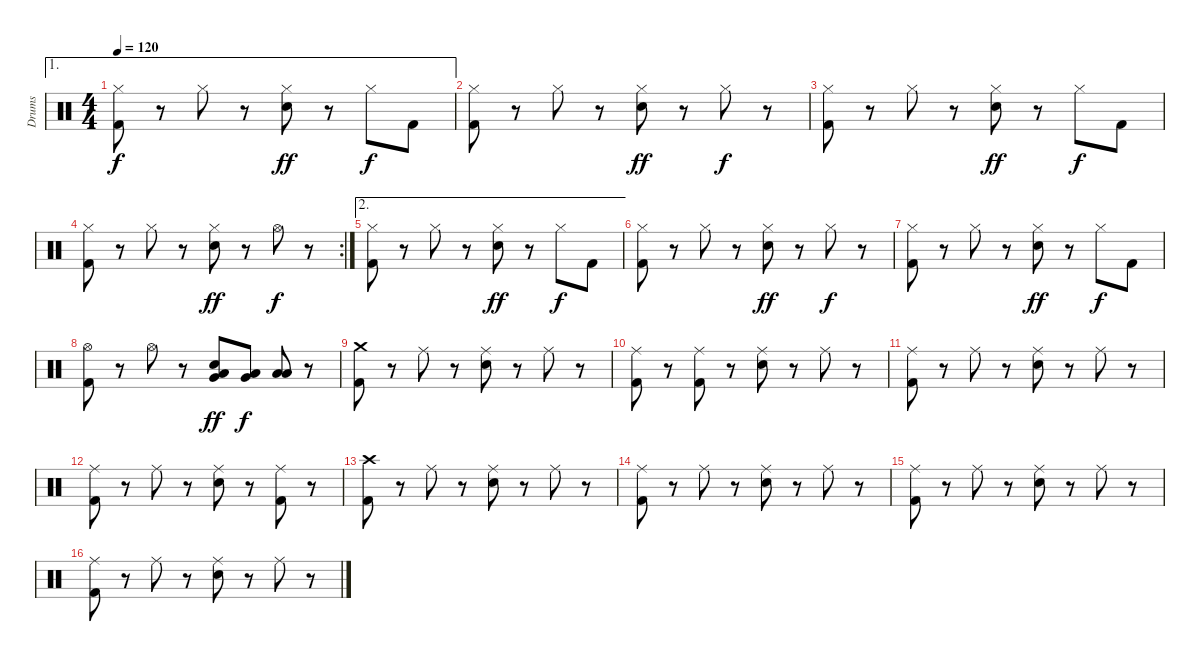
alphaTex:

\track ("Drums" "Drums") {instrument percussion}
\staff {score}
\articulation defaults
\ae 1
\ts (4 4)
\tempo 120
\clef neutral
\ks c
("Hi-Hat (closed)" "Kick (hit) 2").8{dy f} r.8 "Hi-Hat (closed)".8 r.8 ("Hi-Hat (closed)" "Electric Snare (hit)").8{dy ff} r.8 "Hi-Hat (closed)".8{dy f} "Kick (hit) 2".8 |
("Hi-Hat (closed)" "Kick (hit) 2").8 r.8 "Hi-Hat (closed)".8 r.8 ("Hi-Hat (closed)" "Electric Snare (hit)").8{dy ff} r.8 "Hi-Hat (closed)".8{dy f} r.8 |
("Hi-Hat (closed)" "Kick (hit) 2").8 r.8 "Hi-Hat (closed)".8 r.8 ("Hi-Hat (closed)" "Electric Snare (hit)").8{dy ff} r.8 "Hi-Hat (closed)".8{dy f} "Kick (hit) 2".8 |
\rc 2
("Hi-Hat (closed)" "Kick (hit) 2").8 r.8 "Hi-Hat (closed)".8 r.8 ("Hi-Hat (closed)" "Electric Snare (hit)").8{dy ff} r.8 "Hi-Hat (open)".8{dy f} r.8 |
\ae 2
("Hi-Hat (closed)" "Kick (hit) 2").8 r.8 "Hi-Hat (closed)".8 r.8 ("Hi-Hat (closed)" "Electric Snare (hit)").8{dy ff} r.8 "Hi-Hat (closed)".8{dy f} "Kick (hit) 2".8 |
("Hi-Hat (closed)" "Kick (hit) 2").8 r.8 "Hi-Hat (closed)".8 r.8 ("Hi-Hat (closed)" "Electric Snare (hit)").8{dy ff} r.8 "Hi-Hat (closed)".8{dy f} r.8 |
("Hi-Hat (closed)" "Kick (hit) 2").8 r.8 "Hi-Hat (closed)".8 r.8 ("Hi-Hat (closed)" "Electric Snare (hit)").8{dy ff} r.8 "Hi-Hat (closed)".8{dy f} "Kick (hit) 2".8 |
("Hi-Hat (open)" "Kick (hit) 2").8 r.8 "Hi-Hat (open)".8 r.8 ("Very Low Tom (hit)" "Low Tom (hit)" "Electric Snare (hit)").8{dy ff} ("Very Low Tom (hit)" "Low Floor Tom (hit)").8{dy f} ("Low Floor Tom (hit)" "Low Floor Tom (hit)").8 r.8 |
("Crash medium (hit)" "Kick (hit) 2").8 r.8 "Ride (middle)".8 r.8 ("Ride (middle)" "Electric Snare (hit)").8 r.8 "Ride (middle)".8 r.8 |
("Ride (middle)" "Kick (hit) 2").8 r.8 ("Ride (middle)" "Kick (hit) 2").8 r.8 ("Ride (middle)" "Electric Snare (hit)").8 r.8 "Ride (middle)".8 r.8 |
("Ride (middle)" "Kick (hit) 2").8 r.8 "Ride (middle)".8 r.8 ("Ride (middle)" "Electric Snare (hit)").8 r.8 "Ride (middle)".8 r.8 |
("Ride (middle)" "Kick (hit) 2").8 r.8 "Ride (middle)".8 r.8 ("Ride (middle)" "Electric Snare (hit)").8 r.8 ("Ride (middle)" "Kick (hit) 2").8 r.8 |
("Crash high (hit)" "Kick (hit) 2").8 r.8 "Ride (middle)".8 r.8 ("Ride (middle)" "Electric Snare (hit)").8 r.8 "Ride (middle)".8 r.8 |
("Ride (middle)" "Kick (hit) 2").8 r.8 "Ride (middle)".8 r.8 ("Ride (middle)" "Electric Snare (hit)").8 r.8 "Ride (middle)".8 r.8 |
("Ride (middle)" "Kick (hit) 2").8 r.8 "Ride (middle)".8 r.8 ("Ride (middle)" "Electric Snare (hit)").8 r.8 "Ride (middle)".8 r.8 |
("Ride (middle)" "Kick (hit) 2").8 r.8 "Ride (middle)".8 r.8 ("Ride (middle)" "Electric Snare (hit)").8 r.8 "Ride (middle)".8 r.8
